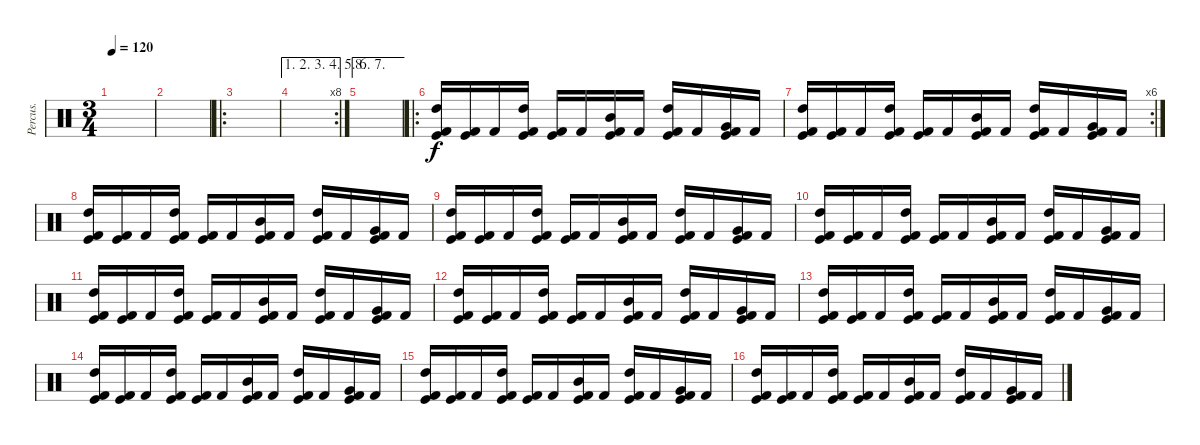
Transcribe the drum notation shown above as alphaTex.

\track ("Percus." "Percus.") {instrument percussion}
\staff {score}
\articulation defaults
\ts (3 4)
\tempo 120
\clef neutral
\ks c
|
|
\ro
|
\ae (1 2 3 4 5 6 7)
\rc 8
|
\ae 8
|
\ro
("High Tom (hit)" "Kick (hit)" "Kick (hit) 2").16 ("Kick (hit)" "Kick (hit) 2").16 "Kick (hit) 2".16 ("High Tom (hit)" "Kick (hit)" "Kick (hit) 2").16 ("Kick (hit)" "Kick (hit) 2").16 "Kick (hit) 2".16 ("Mid Tom (hit)" "Kick (hit)" "Kick (hit) 2").16 "Kick (hit) 2".16 ("High Tom (hit)" "Kick (hit)" "Kick (hit) 2").16 "Kick (hit) 2".16 ("Very Low Tom (hit)" "Kick (hit)" "Kick (hit) 2").16 "Kick (hit) 2".16 |
\rc 6
("High Tom (hit)" "Kick (hit)" "Kick (hit) 2").16 ("Kick (hit)" "Kick (hit) 2").16 "Kick (hit) 2".16 ("High Tom (hit)" "Kick (hit)" "Kick (hit) 2").16 ("Kick (hit)" "Kick (hit) 2").16 "Kick (hit) 2".16 ("Mid Tom (hit)" "Kick (hit)" "Kick (hit) 2").16 "Kick (hit) 2".16 ("High Tom (hit)" "Kick (hit)" "Kick (hit) 2").16 "Kick (hit) 2".16 ("Very Low Tom (hit)" "Kick (hit)" "Kick (hit) 2").16 "Kick (hit) 2".16 |
("High Tom (hit)" "Kick (hit)" "Kick (hit) 2").16 ("Kick (hit)" "Kick (hit) 2").16 "Kick (hit) 2".16 ("High Tom (hit)" "Kick (hit)" "Kick (hit) 2").16 ("Kick (hit)" "Kick (hit) 2").16 "Kick (hit) 2".16 ("Mid Tom (hit)" "Kick (hit)" "Kick (hit) 2").16 "Kick (hit) 2".16 ("High Tom (hit)" "Kick (hit)" "Kick (hit) 2").16 "Kick (hit) 2".16 ("Very Low Tom (hit)" "Kick (hit)" "Kick (hit) 2").16 "Kick (hit) 2".16 |
("High Tom (hit)" "Kick (hit)" "Kick (hit) 2").16 ("Kick (hit)" "Kick (hit) 2").16 "Kick (hit) 2".16 ("High Tom (hit)" "Kick (hit)" "Kick (hit) 2").16 ("Kick (hit)" "Kick (hit) 2").16 "Kick (hit) 2".16 ("Mid Tom (hit)" "Kick (hit)" "Kick (hit) 2").16 "Kick (hit) 2".16 ("High Tom (hit)" "Kick (hit)" "Kick (hit) 2").16 "Kick (hit) 2".16 ("Very Low Tom (hit)" "Kick (hit)" "Kick (hit) 2").16 "Kick (hit) 2".16 |
("High Tom (hit)" "Kick (hit)" "Kick (hit) 2").16 ("Kick (hit)" "Kick (hit) 2").16 "Kick (hit) 2".16 ("High Tom (hit)" "Kick (hit)" "Kick (hit) 2").16 ("Kick (hit)" "Kick (hit) 2").16 "Kick (hit) 2".16 ("Mid Tom (hit)" "Kick (hit)" "Kick (hit) 2").16 "Kick (hit) 2".16 ("High Tom (hit)" "Kick (hit)" "Kick (hit) 2").16 "Kick (hit) 2".16 ("Very Low Tom (hit)" "Kick (hit)" "Kick (hit) 2").16 "Kick (hit) 2".16 |
("High Tom (hit)" "Kick (hit)" "Kick (hit) 2").16 ("Kick (hit)" "Kick (hit) 2").16 "Kick (hit) 2".16 ("High Tom (hit)" "Kick (hit)" "Kick (hit) 2").16 ("Kick (hit)" "Kick (hit) 2").16 "Kick (hit) 2".16 ("Mid Tom (hit)" "Kick (hit)" "Kick (hit) 2").16 "Kick (hit) 2".16 ("High Tom (hit)" "Kick (hit)" "Kick (hit) 2").16 "Kick (hit) 2".16 ("Very Low Tom (hit)" "Kick (hit)" "Kick (hit) 2").16 "Kick (hit) 2".16 |
("High Tom (hit)" "Kick (hit)" "Kick (hit) 2").16 ("Kick (hit)" "Kick (hit) 2").16 "Kick (hit) 2".16 ("High Tom (hit)" "Kick (hit)" "Kick (hit) 2").16 ("Kick (hit)" "Kick (hit) 2").16 "Kick (hit) 2".16 ("Mid Tom (hit)" "Kick (hit)" "Kick (hit) 2").16 "Kick (hit) 2".16 ("High Tom (hit)" "Kick (hit)" "Kick (hit) 2").16 "Kick (hit) 2".16 ("Very Low Tom (hit)" "Kick (hit)" "Kick (hit) 2").16 "Kick (hit) 2".16 |
("High Tom (hit)" "Kick (hit)" "Kick (hit) 2").16 ("Kick (hit)" "Kick (hit) 2").16 "Kick (hit) 2".16 ("High Tom (hit)" "Kick (hit)" "Kick (hit) 2").16 ("Kick (hit)" "Kick (hit) 2").16 "Kick (hit) 2".16 ("Mid Tom (hit)" "Kick (hit)" "Kick (hit) 2").16 "Kick (hit) 2".16 ("High Tom (hit)" "Kick (hit)" "Kick (hit) 2").16 "Kick (hit) 2".16 ("Very Low Tom (hit)" "Kick (hit)" "Kick (hit) 2").16 "Kick (hit) 2".16 |
("High Tom (hit)" "Kick (hit)" "Kick (hit) 2").16 ("Kick (hit)" "Kick (hit) 2").16 "Kick (hit) 2".16 ("High Tom (hit)" "Kick (hit)" "Kick (hit) 2").16 ("Kick (hit)" "Kick (hit) 2").16 "Kick (hit) 2".16 ("Mid Tom (hit)" "Kick (hit)" "Kick (hit) 2").16 "Kick (hit) 2".16 ("High Tom (hit)" "Kick (hit)" "Kick (hit) 2").16 "Kick (hit) 2".16 ("Very Low Tom (hit)" "Kick (hit)" "Kick (hit) 2").16 "Kick (hit) 2".16 |
("High Tom (hit)" "Kick (hit)" "Kick (hit) 2").16 ("Kick (hit)" "Kick (hit) 2").16 "Kick (hit) 2".16 ("High Tom (hit)" "Kick (hit)" "Kick (hit) 2").16 ("Kick (hit)" "Kick (hit) 2").16 "Kick (hit) 2".16 ("Mid Tom (hit)" "Kick (hit)" "Kick (hit) 2").16 "Kick (hit) 2".16 ("High Tom (hit)" "Kick (hit)" "Kick (hit) 2").16 "Kick (hit) 2".16 ("Very Low Tom (hit)" "Kick (hit)" "Kick (hit) 2").16 "Kick (hit) 2".16 |
("High Tom (hit)" "Kick (hit)" "Kick (hit) 2").16 ("Kick (hit)" "Kick (hit) 2").16 "Kick (hit) 2".16 ("High Tom (hit)" "Kick (hit)" "Kick (hit) 2").16 ("Kick (hit)" "Kick (hit) 2").16 "Kick (hit) 2".16 ("Mid Tom (hit)" "Kick (hit)" "Kick (hit) 2").16 "Kick (hit) 2".16 ("High Tom (hit)" "Kick (hit)" "Kick (hit) 2").16 "Kick (hit) 2".16 ("Very Low Tom (hit)" "Kick (hit)" "Kick (hit) 2").16 "Kick (hit) 2".16
